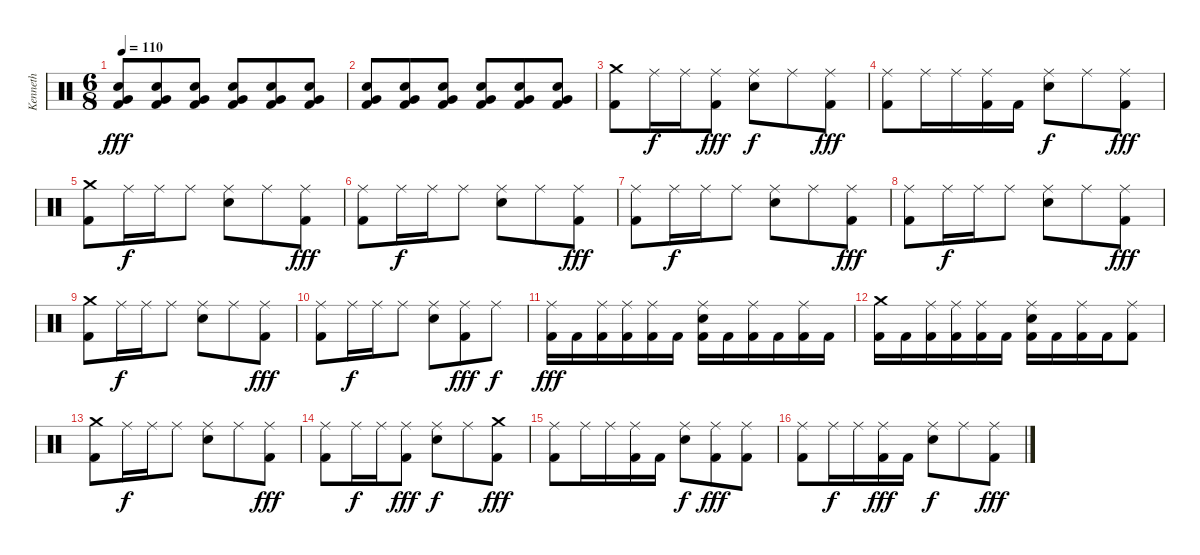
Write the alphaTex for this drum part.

\track ("Kenneth" "Kenneth") {instrument percussion}
\staff {score}
\articulation defaults
\ts (6 8)
\tempo 110
\clef neutral
\ks c
("Electric Snare (hit)" "Very Low Tom (hit)" "Kick (hit) 2").8{dy fff} ("Electric Snare (hit)" "Very Low Tom (hit)" "Kick (hit) 2").8 ("Electric Snare (hit)" "Very Low Tom (hit)" "Kick (hit) 2").8 ("Electric Snare (hit)" "Very Low Tom (hit)" "Kick (hit) 2").8 ("Electric Snare (hit)" "Very Low Tom (hit)" "Kick (hit) 2").8 ("Electric Snare (hit)" "Very Low Tom (hit)" "Kick (hit) 2").8 |
("Electric Snare (hit)" "Very Low Tom (hit)" "Kick (hit) 2").8 ("Electric Snare (hit)" "Very Low Tom (hit)" "Kick (hit) 2").8 ("Electric Snare (hit)" "Very Low Tom (hit)" "Kick (hit) 2").8 ("Electric Snare (hit)" "Very Low Tom (hit)" "Kick (hit) 2").8 ("Electric Snare (hit)" "Very Low Tom (hit)" "Kick (hit) 2").8 ("Electric Snare (hit)" "Very Low Tom (hit)" "Kick (hit) 2").8 |
("Crash medium (hit)" "Kick (hit) 2").8 "Ride (middle)".16{dy f} "Ride (middle)".16 ("Ride (middle)" "Kick (hit) 2").8{dy fff} ("Ride (middle)" "Snare (hit) 2").8{dy f} "Ride (middle)".8 ("Ride (middle)" "Kick (hit) 2").8{dy fff} |
("Ride (middle)" "Kick (hit) 2").8 "Ride (middle)".16 "Ride (middle)".16 ("Ride (middle)" "Kick (hit) 2").16 "Kick (hit) 2".16 ("Ride (middle)" "Snare (hit) 2").8{dy f} "Ride (middle)".8 ("Ride (middle)" "Kick (hit) 2").8{dy fff} |
("Crash medium (hit)" "Kick (hit) 2").8 "Ride (middle)".16{dy f} "Ride (middle)".16 "Ride (middle)".8 ("Ride (middle)" "Snare (hit) 2").8 "Ride (middle)".8 ("Ride (middle)" "Kick (hit) 2").8{dy fff} |
("Ride (middle)" "Kick (hit) 2").8 "Ride (middle)".16{dy f} "Ride (middle)".16 "Ride (middle)".8 ("Ride (middle)" "Snare (hit) 2").8 "Ride (middle)".8 ("Ride (middle)" "Kick (hit) 2").8{dy fff} |
("Ride (middle)" "Kick (hit) 2").8 "Ride (middle)".16{dy f} "Ride (middle)".16 "Ride (middle)".8 ("Ride (middle)" "Snare (hit) 2").8 "Ride (middle)".8 ("Ride (middle)" "Kick (hit) 2").8{dy fff} |
("Ride (middle)" "Kick (hit) 2").8 "Ride (middle)".16{dy f} "Ride (middle)".16 "Ride (middle)".8 ("Ride (middle)" "Snare (hit) 2").8 "Ride (middle)".8 ("Ride (middle)" "Kick (hit) 2").8{dy fff} |
("Crash medium (hit)" "Kick (hit) 2").8 "Ride (middle)".16{dy f} "Ride (middle)".16 "Ride (middle)".8 ("Ride (middle)" "Snare (hit) 2").8 "Ride (middle)".8 ("Ride (middle)" "Kick (hit) 2").8{dy fff} |
("Ride (middle)" "Kick (hit) 2").8 "Ride (middle)".16{dy f} "Ride (middle)".16 "Ride (middle)".8 ("Ride (middle)" "Snare (hit) 2").8 ("Ride (middle)" "Kick (hit) 2").8{dy fff} "Ride (middle)".8{dy f} |
("Ride (middle)" "Kick (hit) 2").16{dy fff} "Kick (hit) 2".16 ("Ride (middle)" "Kick (hit) 2").16 ("Ride (middle)" "Kick (hit) 2").16 ("Ride (middle)" "Kick (hit) 2").16 "Kick (hit) 2".16 ("Ride (middle)" "Snare (hit) 2" "Kick (hit) 2").16 "Kick (hit) 2".16 ("Ride (middle)" "Kick (hit) 2").16 "Kick (hit) 2".16 ("Ride (middle)" "Kick (hit) 2").16 "Kick (hit) 2".16 |
("Crash medium (hit)" "Kick (hit) 2").16 "Kick (hit) 2".16 ("Ride (middle)" "Kick (hit) 2").16 ("Ride (middle)" "Kick (hit) 2").16 ("Ride (middle)" "Kick (hit) 2").16 "Kick (hit) 2".16 ("Ride (middle)" "Snare (hit) 2" "Kick (hit) 2").16 "Kick (hit) 2".16 ("Ride (middle)" "Kick (hit) 2").16 "Kick (hit) 2".16 ("Ride (middle)" "Kick (hit) 2").8 |
("Crash medium (hit)" "Kick (hit) 2").8 "Ride (middle)".16{dy f} "Ride (middle)".16 "Ride (middle)".8 ("Ride (middle)" "Snare (hit) 2").8 "Ride (middle)".8 ("Ride (middle)" "Kick (hit) 2").8{dy fff} |
("Ride (middle)" "Kick (hit) 2").8 "Ride (middle)".16{dy f} "Ride (middle)".16 ("Ride (middle)" "Kick (hit) 2").8{dy fff} ("Ride (middle)" "Snare (hit) 2").8{dy f} "Ride (middle)".8 ("Crash medium (hit)" "Kick (hit) 2").8{dy fff} |
("Ride (middle)" "Kick (hit) 2").8 "Ride (middle)".16 "Ride (middle)".16 ("Ride (middle)" "Kick (hit) 2").16 "Kick (hit) 2".16 ("Ride (middle)" "Snare (hit) 2").8{dy f} ("Ride (middle)" "Kick (hit) 2").8{dy fff} ("Ride (middle)" "Kick (hit) 2").8 |
("Ride (middle)" "Kick (hit) 2").8 "Ride (middle)".16{dy f} "Ride (middle)".16 ("Ride (middle)" "Kick (hit) 2").16{dy fff} "Kick (hit) 2".16 ("Ride (middle)" "Snare (hit) 2").8{dy f} "Ride (middle)".8 ("Ride (middle)" "Kick (hit) 2").8{dy fff}
